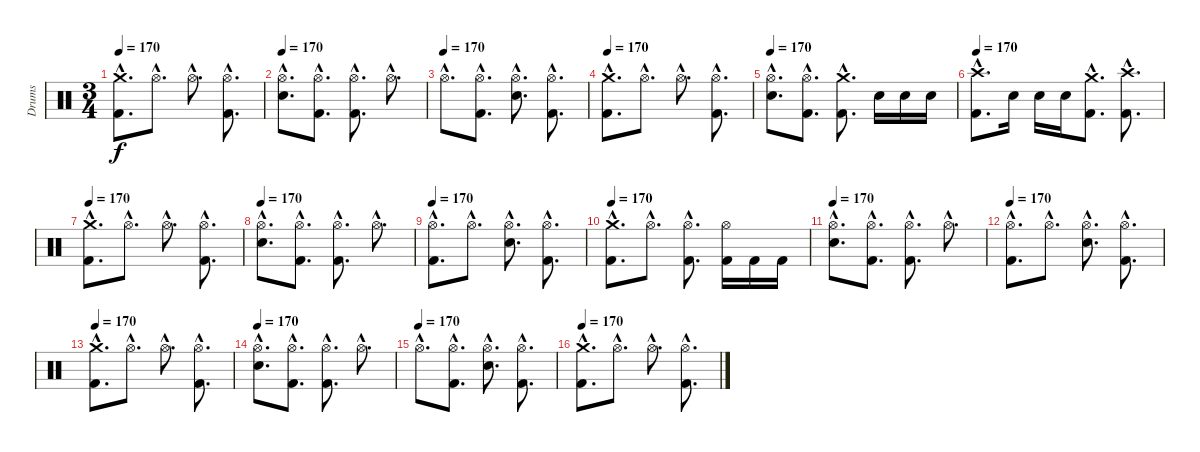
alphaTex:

\track ("Drums" "Drums") {instrument percussion}
\staff {score}
\articulation defaults
\ts (3 4)
\tempo 170
\clef neutral
\ks c
("Crash medium (hit)"{hac} "Kick (hit) 2"{hac}).8{d dy f} "Hi-Hat (open)"{hac}.8{d} "Hi-Hat (open)"{hac}.8{d} ("Hi-Hat (open)"{hac} "Kick (hit) 2"{hac}).8{d} |
\tempo 170
("Hi-Hat (open)"{hac} "Snare (hit) 2"{hac}).8{d} ("Hi-Hat (open)"{hac} "Kick (hit) 2"{hac}).8{d} ("Hi-Hat (open)"{hac} "Kick (hit) 2"{hac}).8{d} "Hi-Hat (open)"{hac}.8{d} |
\tempo (170)
"Hi-Hat (open)"{hac}.8{d} ("Hi-Hat (open)"{hac} "Kick (hit) 2"{hac}).8{d} ("Hi-Hat (open)"{hac} "Snare (hit) 2"{hac}).8{d} ("Hi-Hat (open)"{hac} "Kick (hit) 2"{hac}).8{d} |
\tempo 170
("Crash medium (hit)"{hac} "Kick (hit) 2"{hac}).8{d} "Hi-Hat (open)"{hac}.8{d} "Hi-Hat (open)"{hac}.8{d} ("Hi-Hat (open)"{hac} "Kick (hit) 2"{hac}).8{d} |
\tempo 170
("Hi-Hat (open)"{hac} "Snare (hit) 2"{hac}).8{d} ("Hi-Hat (open)"{hac} "Kick (hit) 2"{hac}).8{d} ("Crash medium (hit)"{hac} "Kick (hit) 2"{hac}).8{d} "Snare (hit) 2".16 "Snare (hit) 2".16 "Snare (hit) 2".16 |
\tempo 170
("Crash high (hit)"{hac} "Kick (hit) 2"{hac}).8{d} "Snare (hit) 2".16 "Snare (hit) 2".16 "Snare (hit) 2".16 ("Crash medium (hit)"{hac} "Kick (hit) 2"{hac}).8{d} ("Crash high (hit)"{hac} "Kick (hit) 2"{hac}).8{d} |
\tempo 170
("Crash medium (hit)"{hac} "Kick (hit) 2"{hac}).8{d} "Hi-Hat (open)"{hac}.8{d} "Hi-Hat (open)"{hac}.8{d} ("Hi-Hat (open)"{hac} "Kick (hit) 2"{hac}).8{d} |
\tempo 170
("Hi-Hat (open)"{hac} "Snare (hit) 2"{hac}).8{d} ("Hi-Hat (open)"{hac} "Kick (hit) 2"{hac}).8{d} ("Hi-Hat (open)"{hac} "Kick (hit) 2"{hac}).8{d} "Hi-Hat (open)"{hac}.8{d} |
\tempo 170
("Hi-Hat (open)"{hac} "Kick (hit) 2"{hac}).8{d} "Hi-Hat (open)"{hac}.8{d} ("Hi-Hat (open)"{hac} "Snare (hit) 2"{hac}).8{d} ("Hi-Hat (open)"{hac} "Kick (hit) 2"{hac}).8{d} |
\tempo 170
("Crash medium (hit)"{hac} "Kick (hit) 2"{hac}).8{d} "Hi-Hat (open)"{hac}.8{d} ("Hi-Hat (open)"{hac} "Kick (hit) 2"{hac}).8{d} ("Hi-Hat (open)" "Kick (hit) 2").16 "Kick (hit) 2".16 "Kick (hit) 2".16 |
\tempo 170
("Hi-Hat (open)"{hac} "Snare (hit) 2"{hac}).8{d} ("Hi-Hat (open)"{hac} "Kick (hit) 2"{hac}).8{d} ("Hi-Hat (open)"{hac} "Kick (hit) 2"{hac}).8{d} "Hi-Hat (open)"{hac}.8{d} |
\tempo 170
("Hi-Hat (open)"{hac} "Kick (hit) 2"{hac}).8{d} "Hi-Hat (open)"{hac}.8{d} ("Hi-Hat (open)"{hac} "Snare (hit) 2"{hac}).8{d} ("Hi-Hat (open)"{hac} "Kick (hit) 2"{hac}).8{d} |
\tempo 170
("Crash medium (hit)"{hac} "Kick (hit) 2"{hac}).8{d} "Hi-Hat (open)"{hac}.8{d} "Hi-Hat (open)"{hac}.8{d} ("Hi-Hat (open)"{hac} "Kick (hit) 2"{hac}).8{d} |
\tempo 170
("Hi-Hat (open)"{hac} "Snare (hit) 2"{hac}).8{d} ("Hi-Hat (open)"{hac} "Kick (hit) 2"{hac}).8{d} ("Hi-Hat (open)"{hac} "Kick (hit) 2"{hac}).8{d} "Hi-Hat (open)"{hac}.8{d} |
\tempo (170)
"Hi-Hat (open)"{hac}.8{d} ("Hi-Hat (open)"{hac} "Kick (hit) 2"{hac}).8{d} ("Hi-Hat (open)"{hac} "Snare (hit) 2"{hac}).8{d} ("Hi-Hat (open)"{hac} "Kick (hit) 2"{hac}).8{d} |
\tempo 170
("Crash medium (hit)"{hac} "Kick (hit) 2"{hac}).8{d} "Hi-Hat (open)"{hac}.8{d} "Hi-Hat (open)"{hac}.8{d} ("Hi-Hat (open)"{hac} "Kick (hit) 2"{hac}).8{d}
